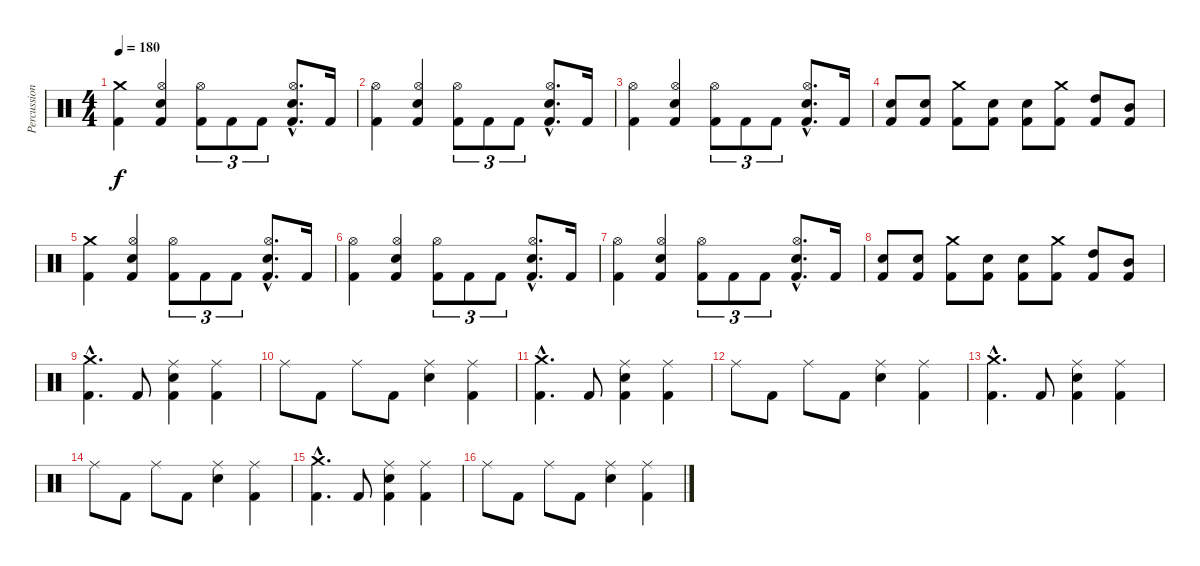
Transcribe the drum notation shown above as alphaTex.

\track ("Percussion" "Percussion") {instrument percussion}
\staff {score}
\articulation defaults
\ts (4 4)
\tempo 180
\clef neutral
\ks c
("Crash medium (hit)" "Kick (hit) 2").4{dy f} ("Hi-Hat (open)" "Electric Snare (hit)" "Kick (hit) 2").4 ("Hi-Hat (open)" "Kick (hit) 2").8{tu (3 2)} "Kick (hit) 2".8{tu (3 2)} "Kick (hit) 2".8{tu (3 2)} ("Hi-Hat (open)"{hac} "Electric Snare (hit)"{hac} "Kick (hit) 2"{hac}).8{d} "Kick (hit) 2".16 |
("Hi-Hat (open)" "Kick (hit) 2").4 ("Hi-Hat (open)" "Electric Snare (hit)" "Kick (hit) 2").4 ("Hi-Hat (open)" "Kick (hit) 2").8{tu (3 2)} "Kick (hit) 2".8{tu (3 2)} "Kick (hit) 2".8{tu (3 2)} ("Hi-Hat (open)"{hac} "Electric Snare (hit)"{hac} "Kick (hit) 2"{hac}).8{d} "Kick (hit) 2".16 |
("Hi-Hat (open)" "Kick (hit) 2").4 ("Hi-Hat (open)" "Electric Snare (hit)" "Kick (hit) 2").4 ("Hi-Hat (open)" "Kick (hit) 2").8{tu (3 2)} "Kick (hit) 2".8{tu (3 2)} "Kick (hit) 2".8{tu (3 2)} ("Hi-Hat (open)"{hac} "Electric Snare (hit)"{hac} "Kick (hit) 2"{hac}).8{d} "Kick (hit) 2".16 |
("Electric Snare (hit)" "Kick (hit) 2").8 ("Electric Snare (hit)" "Kick (hit) 2").8 ("Crash medium (hit)" "Kick (hit) 2").8 ("Electric Snare (hit)" "Kick (hit) 2").8 ("Electric Snare (hit)" "Kick (hit) 2").8 ("Crash medium (hit)" "Kick (hit) 2").8 ("High Tom (hit)" "Kick (hit) 2").8 ("Mid Tom (hit)" "Kick (hit) 2").8 |
("Crash medium (hit)" "Kick (hit) 2").4 ("Hi-Hat (open)" "Electric Snare (hit)" "Kick (hit) 2").4 ("Hi-Hat (open)" "Kick (hit) 2").8{tu (3 2)} "Kick (hit) 2".8{tu (3 2)} "Kick (hit) 2".8{tu (3 2)} ("Hi-Hat (open)"{hac} "Electric Snare (hit)"{hac} "Kick (hit) 2"{hac}).8{d} "Kick (hit) 2".16 |
("Hi-Hat (open)" "Kick (hit) 2").4 ("Hi-Hat (open)" "Electric Snare (hit)" "Kick (hit) 2").4 ("Hi-Hat (open)" "Kick (hit) 2").8{tu (3 2)} "Kick (hit) 2".8{tu (3 2)} "Kick (hit) 2".8{tu (3 2)} ("Hi-Hat (open)"{hac} "Electric Snare (hit)"{hac} "Kick (hit) 2"{hac}).8{d} "Kick (hit) 2".16 |
("Hi-Hat (open)" "Kick (hit) 2").4 ("Hi-Hat (open)" "Electric Snare (hit)" "Kick (hit) 2").4 ("Hi-Hat (open)" "Kick (hit) 2").8{tu (3 2)} "Kick (hit) 2".8{tu (3 2)} "Kick (hit) 2".8{tu (3 2)} ("Hi-Hat (open)"{hac} "Electric Snare (hit)"{hac} "Kick (hit) 2"{hac}).8{d} "Kick (hit) 2".16 |
("Electric Snare (hit)" "Kick (hit) 2").8 ("Electric Snare (hit)" "Kick (hit) 2").8 ("Crash medium (hit)" "Kick (hit) 2").8 ("Electric Snare (hit)" "Kick (hit) 2").8 ("Electric Snare (hit)" "Kick (hit) 2").8 ("Crash medium (hit)" "Kick (hit) 2").8 ("High Tom (hit)" "Kick (hit) 2").8 ("Mid Tom (hit)" "Kick (hit) 2").8 |
("Crash medium (hit)"{hac} "Kick (hit) 2"{hac}).4{d} "Kick (hit) 2".8 ("Ride (middle)" "Electric Snare (hit)" "Kick (hit) 2").4 ("Ride (middle)" "Kick (hit) 2").4 |
"Ride (middle)".8 "Kick (hit) 2".8 "Ride (middle)".8 "Kick (hit) 2".8 ("Ride (middle)" "Electric Snare (hit)").4 ("Ride (middle)" "Kick (hit) 2").4 |
("Crash medium (hit)"{hac} "Kick (hit) 2"{hac}).4{d} "Kick (hit) 2".8 ("Ride (middle)" "Electric Snare (hit)" "Kick (hit) 2").4 ("Ride (middle)" "Kick (hit) 2").4 |
"Ride (middle)".8 "Kick (hit) 2".8 "Ride (middle)".8 "Kick (hit) 2".8 ("Ride (middle)" "Electric Snare (hit)").4 ("Ride (middle)" "Kick (hit) 2").4 |
("Crash medium (hit)"{hac} "Kick (hit) 2"{hac}).4{d} "Kick (hit) 2".8 ("Ride (middle)" "Electric Snare (hit)" "Kick (hit) 2").4 ("Ride (middle)" "Kick (hit) 2").4 |
"Ride (middle)".8 "Kick (hit) 2".8 "Ride (middle)".8 "Kick (hit) 2".8 ("Ride (middle)" "Electric Snare (hit)").4 ("Ride (middle)" "Kick (hit) 2").4 |
("Crash medium (hit)"{hac} "Kick (hit) 2"{hac}).4{d} "Kick (hit) 2".8 ("Ride (middle)" "Electric Snare (hit)" "Kick (hit) 2").4 ("Ride (middle)" "Kick (hit) 2").4 |
"Ride (middle)".8 "Kick (hit) 2".8 "Ride (middle)".8 "Kick (hit) 2".8 ("Ride (middle)" "Electric Snare (hit)").4 ("Ride (middle)" "Kick (hit) 2").4
